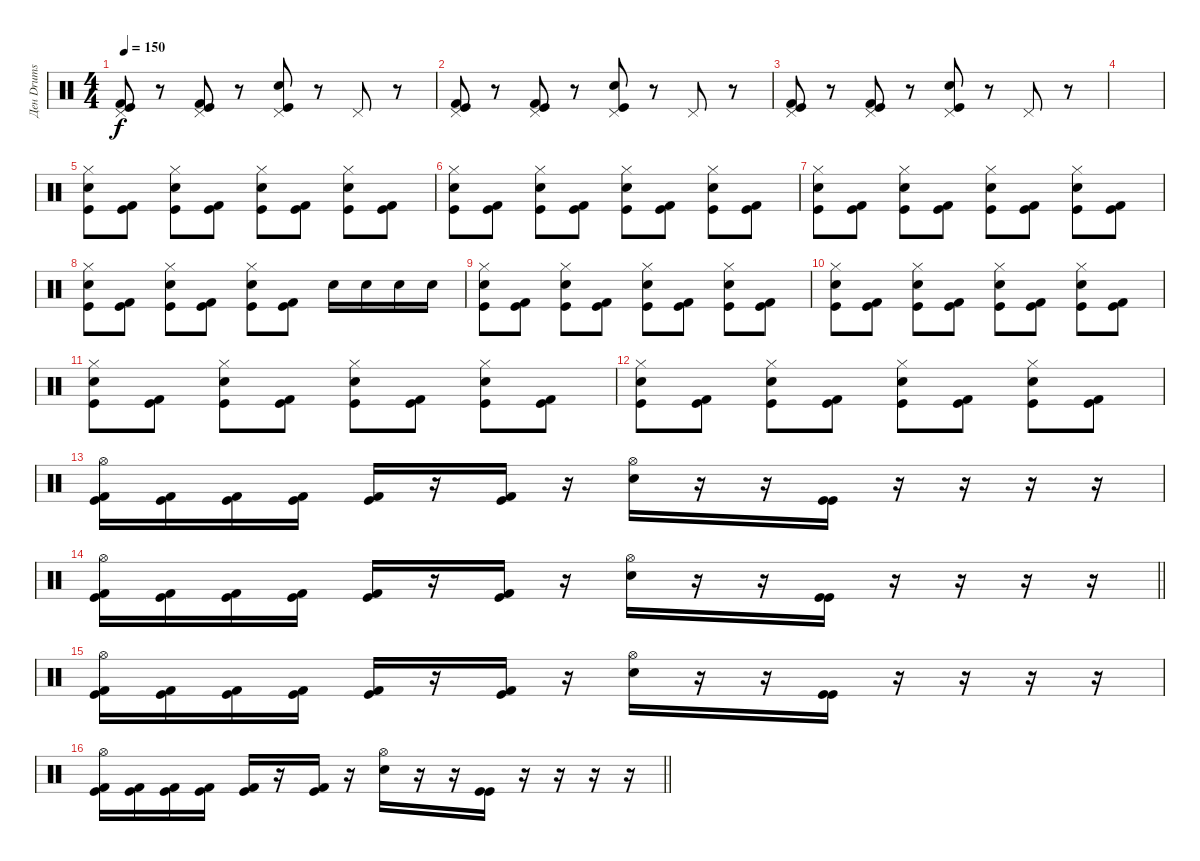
\track ("Ден Drums" "Ден Drums") {instrument percussion}
\staff {score}
\articulation defaults
\ts (4 4)
\tempo 150
\clef neutral
\ks c
("Pedal Hi-Hat (hit)" "Kick (hit)" "Kick (hit) 2").8{dy f} r.8 ("Pedal Hi-Hat (hit)" "Kick (hit)" "Kick (hit) 2").8 r.8 ("Pedal Hi-Hat (hit)" "Electric Snare (hit)" "Kick (hit)").8 r.8 "Pedal Hi-Hat (hit)".8 r.8 |
("Pedal Hi-Hat (hit)" "Kick (hit)" "Kick (hit) 2").8 r.8 ("Pedal Hi-Hat (hit)" "Kick (hit)" "Kick (hit) 2").8 r.8 ("Pedal Hi-Hat (hit)" "Electric Snare (hit)" "Kick (hit)").8 r.8 "Pedal Hi-Hat (hit)".8 r.8 |
("Pedal Hi-Hat (hit)" "Kick (hit)" "Kick (hit) 2").8 r.8 ("Pedal Hi-Hat (hit)" "Kick (hit)" "Kick (hit) 2").8 r.8 ("Pedal Hi-Hat (hit)" "Electric Snare (hit)" "Kick (hit)").8 r.8 "Pedal Hi-Hat (hit)".8 r.8 |
|
("Hi-Hat (closed)" "Electric Snare (hit)" "Kick (hit)").8 ("Kick (hit)" "Kick (hit) 2").8 ("Hi-Hat (closed)" "Electric Snare (hit)" "Kick (hit)").8 ("Kick (hit)" "Kick (hit) 2").8 ("Hi-Hat (closed)" "Electric Snare (hit)" "Kick (hit)").8 ("Kick (hit)" "Kick (hit) 2").8 ("Hi-Hat (closed)" "Electric Snare (hit)" "Kick (hit)").8 ("Kick (hit)" "Kick (hit) 2").8 |
("Hi-Hat (closed)" "Electric Snare (hit)" "Kick (hit)").8 ("Kick (hit)" "Kick (hit) 2").8 ("Hi-Hat (closed)" "Electric Snare (hit)" "Kick (hit)").8 ("Kick (hit)" "Kick (hit) 2").8 ("Hi-Hat (closed)" "Electric Snare (hit)" "Kick (hit)").8 ("Kick (hit)" "Kick (hit) 2").8 ("Hi-Hat (closed)" "Electric Snare (hit)" "Kick (hit)").8 ("Kick (hit)" "Kick (hit) 2").8 |
("Hi-Hat (closed)" "Electric Snare (hit)" "Kick (hit)").8 ("Kick (hit)" "Kick (hit) 2").8 ("Hi-Hat (closed)" "Electric Snare (hit)" "Kick (hit)").8 ("Kick (hit)" "Kick (hit) 2").8 ("Hi-Hat (closed)" "Electric Snare (hit)" "Kick (hit)").8 ("Kick (hit)" "Kick (hit) 2").8 ("Hi-Hat (closed)" "Electric Snare (hit)" "Kick (hit)").8 ("Kick (hit)" "Kick (hit) 2").8 |
("Hi-Hat (closed)" "Electric Snare (hit)" "Kick (hit)").8 ("Kick (hit)" "Kick (hit) 2").8 ("Hi-Hat (closed)" "Electric Snare (hit)" "Kick (hit)").8 ("Kick (hit)" "Kick (hit) 2").8 ("Hi-Hat (closed)" "Electric Snare (hit)" "Kick (hit)").8 ("Kick (hit)" "Kick (hit) 2").8 "Electric Snare (hit)".16 "Electric Snare (hit)".16 "Electric Snare (hit)".16 "Electric Snare (hit)".16 |
("Hi-Hat (closed)" "Electric Snare (hit)" "Kick (hit)").8 ("Kick (hit)" "Kick (hit) 2").8 ("Hi-Hat (closed)" "Electric Snare (hit)" "Kick (hit)").8 ("Kick (hit)" "Kick (hit) 2").8 ("Hi-Hat (closed)" "Electric Snare (hit)" "Kick (hit)").8 ("Kick (hit)" "Kick (hit) 2").8 ("Hi-Hat (closed)" "Electric Snare (hit)" "Kick (hit)").8 ("Kick (hit)" "Kick (hit) 2").8 |
("Hi-Hat (closed)" "Electric Snare (hit)" "Kick (hit)").8 ("Kick (hit)" "Kick (hit) 2").8 ("Hi-Hat (closed)" "Electric Snare (hit)" "Kick (hit)").8 ("Kick (hit)" "Kick (hit) 2").8 ("Hi-Hat (closed)" "Electric Snare (hit)" "Kick (hit)").8 ("Kick (hit)" "Kick (hit) 2").8 ("Hi-Hat (closed)" "Electric Snare (hit)" "Kick (hit)").8 ("Kick (hit)" "Kick (hit) 2").8 |
("Hi-Hat (closed)" "Electric Snare (hit)" "Kick (hit)").8 ("Kick (hit)" "Kick (hit) 2").8 ("Hi-Hat (closed)" "Electric Snare (hit)" "Kick (hit)").8 ("Kick (hit)" "Kick (hit) 2").8 ("Hi-Hat (closed)" "Electric Snare (hit)" "Kick (hit)").8 ("Kick (hit)" "Kick (hit) 2").8 ("Hi-Hat (closed)" "Electric Snare (hit)" "Kick (hit)").8 ("Kick (hit)" "Kick (hit) 2").8 |
("Hi-Hat (closed)" "Electric Snare (hit)" "Kick (hit)").8 ("Kick (hit)" "Kick (hit) 2").8 ("Hi-Hat (closed)" "Electric Snare (hit)" "Kick (hit)").8 ("Kick (hit)" "Kick (hit) 2").8 ("Hi-Hat (closed)" "Electric Snare (hit)" "Kick (hit)").8 ("Kick (hit)" "Kick (hit) 2").8 ("Hi-Hat (closed)" "Electric Snare (hit)" "Kick (hit)").8 ("Kick (hit)" "Kick (hit) 2").8 |
("Hi-Hat (open)" "Kick (hit)" "Kick (hit) 2").16 ("Kick (hit)" "Kick (hit) 2").16 ("Kick (hit)" "Kick (hit) 2").16 ("Kick (hit)" "Kick (hit) 2").16 ("Kick (hit)" "Kick (hit) 2").16 r.16 ("Kick (hit)" "Kick (hit) 2").16 r.16 ("Hi-Hat (open)" "Electric Snare (hit)").16 r.16 r.16 ("Kick (hit)" "Kick (hit)").16 r.16 r.16 r.16 r.16 |
\barLineRight lightlight
("Hi-Hat (open)" "Kick (hit)" "Kick (hit) 2").16 ("Kick (hit)" "Kick (hit) 2").16 ("Kick (hit)" "Kick (hit) 2").16 ("Kick (hit)" "Kick (hit) 2").16 ("Kick (hit)" "Kick (hit) 2").16 r.16 ("Kick (hit)" "Kick (hit) 2").16 r.16 ("Hi-Hat (open)" "Electric Snare (hit)").16 r.16 r.16 ("Kick (hit)" "Kick (hit)").16 r.16 r.16 r.16 r.16 |
("Hi-Hat (open)" "Kick (hit)" "Kick (hit) 2").16 ("Kick (hit)" "Kick (hit) 2").16 ("Kick (hit)" "Kick (hit) 2").16 ("Kick (hit)" "Kick (hit) 2").16 ("Kick (hit)" "Kick (hit) 2").16 r.16 ("Kick (hit)" "Kick (hit) 2").16 r.16 ("Hi-Hat (open)" "Electric Snare (hit)").16 r.16 r.16 ("Kick (hit)" "Kick (hit)").16 r.16 r.16 r.16 r.16 |
\barLineRight lightlight
("Hi-Hat (open)" "Kick (hit)" "Kick (hit) 2").16 ("Kick (hit)" "Kick (hit) 2").16 ("Kick (hit)" "Kick (hit) 2").16 ("Kick (hit)" "Kick (hit) 2").16 ("Kick (hit)" "Kick (hit) 2").16 r.16 ("Kick (hit)" "Kick (hit) 2").16 r.16 ("Hi-Hat (open)" "Electric Snare (hit)").16 r.16 r.16 ("Kick (hit)" "Kick (hit)").16 r.16 r.16 r.16 r.16
